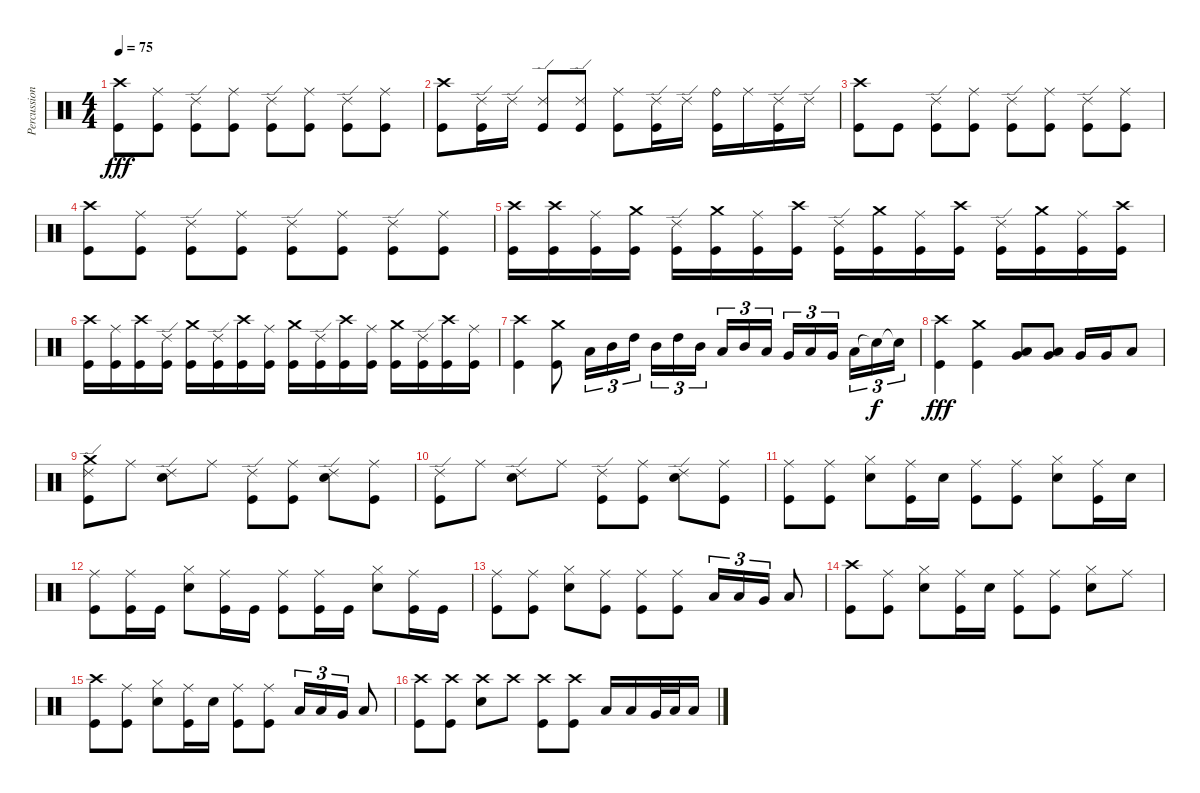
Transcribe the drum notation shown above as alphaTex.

\track ("Percussion" "Percussion") {instrument percussion}
\staff {score}
\articulation defaults
\ts (4 4)
\tempo 75
\clef neutral
\ks c
("Crash high (hit)" "Kick (hit)").8{dy fff} ("Ride (middle)" "Kick (hit)").8 ("Ride (edge) 2" "Kick (hit)").8 ("Ride (middle)" "Kick (hit)").8 ("Ride (edge) 2" "Kick (hit)").8 ("Ride (middle)" "Kick (hit)").8 ("Ride (edge) 2" "Kick (hit)").8 ("Ride (middle)" "Kick (hit)").8 |
("Crash high (hit)" "Kick (hit)").8 ("Ride (edge) 2" "Kick (hit)").16 "Ride (edge) 2".16 ("Ride (edge) 2" "Kick (hit)").8 ("Ride (edge) 2" "Kick (hit)").8 ("Ride (middle)" "Kick (hit)").8 ("Ride (edge) 2" "Kick (hit)").16 "Ride (edge) 2".16 ("Ride (bell)" "Kick (hit)").16 "Ride (middle)".16 ("Ride (edge) 2" "Kick (hit)").16 "Ride (edge) 2".16 |
("Crash high (hit)" "Kick (hit)").8 "Kick (hit)".8 ("Ride (edge) 2" "Kick (hit)").8 ("Ride (middle)" "Kick (hit)").8 ("Ride (edge) 2" "Kick (hit)").8 ("Ride (middle)" "Kick (hit)").8 ("Ride (edge) 2" "Kick (hit)").8 ("Ride (middle)" "Kick (hit)").8 |
("Crash high (hit)" "Kick (hit)").8 ("Ride (middle)" "Kick (hit)").8 ("Ride (edge) 2" "Kick (hit)").8 ("Ride (middle)" "Kick (hit)").8 ("Ride (edge) 2" "Kick (hit)").8 ("Ride (middle)" "Kick (hit)").8 ("Ride (edge) 2" "Kick (hit)").8 ("Ride (middle)" "Kick (hit)").8 |
("Crash high (hit)" "Kick (hit)").16 ("Crash high (hit)" "Kick (hit)").16 ("Ride (middle)" "Kick (hit)").16 ("Crash medium (hit)" "Kick (hit)").16 ("Ride (edge) 2" "Kick (hit)").16 ("Crash medium (hit)" "Kick (hit)").16 ("Ride (middle)" "Kick (hit)").16 ("Crash high (hit)" "Kick (hit)").16 ("Ride (edge) 2" "Kick (hit)").16 ("Crash medium (hit)" "Kick (hit)").16 ("Ride (middle)" "Kick (hit)").16 ("Crash high (hit)" "Kick (hit)").16 ("Ride (edge) 2" "Kick (hit)").16 ("Crash medium (hit)" "Kick (hit)").16 ("Ride (middle)" "Kick (hit)").16 ("Crash high (hit)" "Kick (hit)").16 |
("Crash high (hit)" "Kick (hit)").16 ("Ride (middle)" "Kick (hit)").16 ("Crash high (hit)" "Kick (hit)").16 ("Ride (edge) 2" "Kick (hit)").16 ("Crash medium (hit)" "Kick (hit)").16 ("Ride (edge) 2" "Kick (hit)").16 ("Crash high (hit)" "Kick (hit)").16 ("Ride (middle)" "Kick (hit)").16 ("Crash medium (hit)" "Kick (hit)").16 ("Ride (edge) 2" "Kick (hit)").16 ("Crash high (hit)" "Kick (hit)").16 ("Ride (middle)" "Kick (hit)").16 ("Crash medium (hit)" "Kick (hit)").16 ("Ride (edge) 2" "Kick (hit)").16 ("Crash high (hit)" "Kick (hit)").16 ("Ride (middle)" "Kick (hit)").16 |
("Crash high (hit)" "Kick (hit)").4 ("Crash medium (hit)" "Kick (hit)").8 "Low Tom (hit)".16{tu (3 2)} "Mid Tom (hit)".16{tu (3 2)} "High Tom (hit)".16{tu (3 2)} "Mid Tom (hit)".16{tu (3 2)} "High Tom (hit)".16{tu (3 2)} "Mid Tom (hit)".16{tu (3 2)} "Low Tom (hit)".16{tu (3 2)} "Mid Tom (hit)".16{tu (3 2)} "Low Tom (hit)".16{tu (3 2)} "Very Low Tom (hit)".16{tu (3 2)} "Low Tom (hit)".16{tu (3 2)} "Very Low Tom (hit)".16{tu (3 2)} "Low Floor Tom (hit)".16{tu (3 2)} "Snare (hit)"{t}.16{tu (3 2) dy f} "Snare (hit)"{t}.16{tu (3 2)} |
("Crash high (hit)" "Kick (hit)").4{dy fff} ("Crash medium (hit)" "Kick (hit)").4 ("Low Tom (hit)" "Very Low Tom (hit)").8 ("Low Tom (hit)" "Very Low Tom (hit)").8 "Very Low Tom (hit)".16 "Very Low Tom (hit)".16 "Low Floor Tom (hit)".8 |
("Ride (edge) 2" "Crash medium (hit)" "Kick (hit)").8 "Ride (middle)".8 ("Ride (edge) 2" "Electric Snare (hit)").8 "Ride (middle)".8 ("Ride (edge) 2" "Kick (hit)").8 ("Ride (middle)" "Kick (hit)").8 ("Ride (edge) 2" "Electric Snare (hit)").8 ("Ride (middle)" "Kick (hit)").8 |
("Ride (edge) 2" "Kick (hit)").8 "Ride (middle)".8 ("Ride (edge) 2" "Electric Snare (hit)").8 "Ride (middle)".8 ("Ride (edge) 2" "Kick (hit)").8 ("Ride (middle)" "Kick (hit)").8 ("Ride (edge) 2" "Electric Snare (hit)").8 ("Ride (middle)" "Kick (hit)").8 |
("Ride (middle)" "Kick (hit)").8 ("Ride (middle)" "Kick (hit)").8 ("Hi-Hat (closed)" "Electric Snare (hit)").8 ("Ride (middle)" "Kick (hit)").16 "Electric Snare (hit)".16 ("Ride (middle)" "Kick (hit)").8 ("Ride (middle)" "Kick (hit)").8 ("Hi-Hat (closed)" "Electric Snare (hit)").8 ("Ride (middle)" "Kick (hit)").16 "Electric Snare (hit)".16 |
("Ride (middle)" "Kick (hit)").8 ("Ride (middle)" "Kick (hit)").16 "Kick (hit)".16 ("Hi-Hat (closed)" "Electric Snare (hit)").8 ("Ride (middle)" "Kick (hit)").16 "Kick (hit)".16 ("Ride (middle)" "Kick (hit)").8 ("Ride (middle)" "Kick (hit)").16 "Kick (hit)".16 ("Hi-Hat (closed)" "Electric Snare (hit)").8 ("Ride (middle)" "Kick (hit)").16 "Kick (hit)".16 |
("Ride (middle)" "Kick (hit)").8 ("Ride (middle)" "Kick (hit)").8 ("Hi-Hat (closed)" "Electric Snare (hit)").8 ("Ride (middle)" "Kick (hit)").8 ("Ride (middle)" "Kick (hit)").8 ("Ride (middle)" "Kick (hit)").8 "Low Tom (hit)".16{tu (3 2)} "Low Tom (hit)".16{tu (3 2)} "Very Low Tom (hit)".16{tu (3 2)} "Low Floor Tom (hit)".8 |
("Crash high (hit)" "Kick (hit)").8 ("Ride (middle)" "Kick (hit)").8 ("Hi-Hat (closed)" "Electric Snare (hit)").8 ("Ride (middle)" "Kick (hit)").16 "Electric Snare (hit)".16 ("Ride (middle)" "Kick (hit)").8 ("Ride (middle)" "Kick (hit)").8 ("Hi-Hat (closed)" "Electric Snare (hit)").8 "Ride (middle)".8 |
("Crash high (hit)" "Kick (hit)").8 ("Ride (middle)" "Kick (hit)").8 ("Hi-Hat (closed)" "Electric Snare (hit)").8 ("Ride (middle)" "Kick (hit)").16 "Electric Snare (hit)".16 ("Ride (middle)" "Kick (hit)").8 ("Ride (middle)" "Kick (hit)").8 "Low Tom (hit)".16{tu (3 2)} "Low Tom (hit)".16{tu (3 2)} "Very Low Tom (hit)".16{tu (3 2)} "Low Floor Tom (hit)".8 |
("Crash high (hit)" "Kick (hit)").8 ("Crash high (hit)" "Kick (hit)").8 ("Crash high (hit)" "Electric Snare (hit)").8 "Crash high (hit)".8 ("Crash high (hit)" "Kick (hit)").8 ("Crash high (hit)" "Kick (hit)").8 "Low Tom (hit)".16 "Low Tom (hit)".16 "Very Low Tom (hit)".32 "Low Floor Tom (hit)".32 "Low Floor Tom (hit)".16
